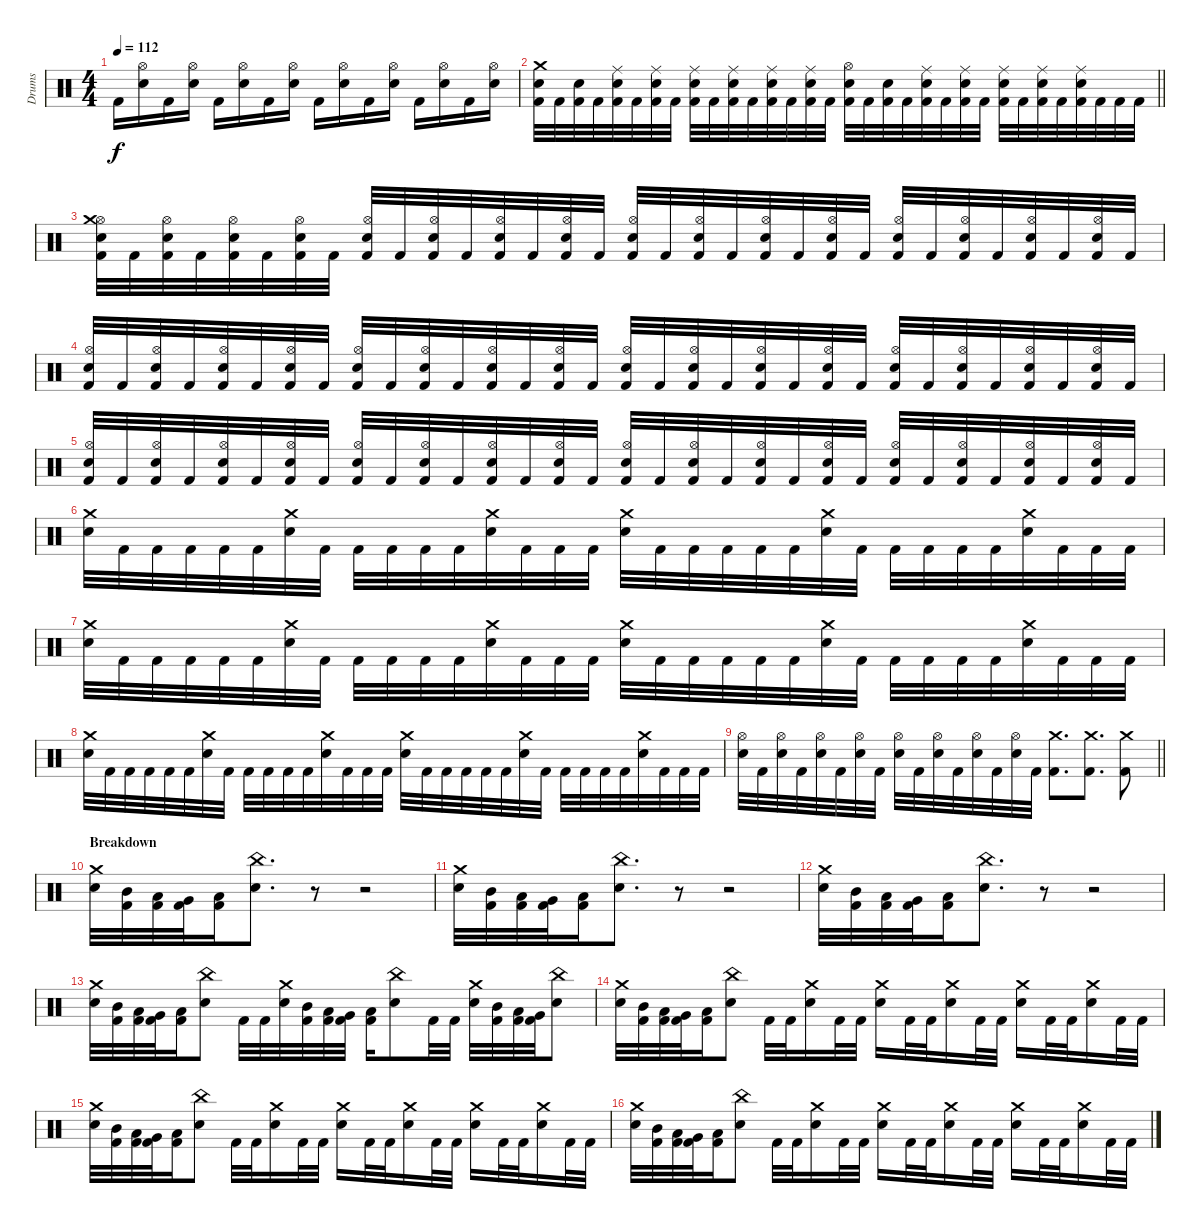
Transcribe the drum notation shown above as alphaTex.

\track ("Drums" "Drums") {instrument percussion}
\staff {score}
\articulation defaults
\ts (4 4)
\tempo 112
\clef neutral
\ks c "Kick (hit) 2".16{dy f}
("Hi-Hat (open)" "Snare (hit) 2").16 "Kick (hit) 2".16 ("Hi-Hat (open)" "Snare (hit) 2").16 "Kick (hit) 2".16 ("Hi-Hat (open)" "Snare (hit) 2").16 "Kick (hit) 2".16 ("Hi-Hat (open)" "Snare (hit) 2").16 "Kick (hit) 2".16 ("Hi-Hat (open)" "Snare (hit) 2").16 "Kick (hit) 2".16 ("Hi-Hat (open)" "Snare (hit) 2").16 "Kick (hit) 2".16 ("Hi-Hat (open)" "Snare (hit) 2").16 "Kick (hit) 2".16 ("Hi-Hat (open)" "Snare (hit) 2").16 |
\barLineRight lightlight
("Snare (hit) 2" "Kick (hit) 2" "Crash medium (hit)").32 "Kick (hit) 2".32 ("Snare (hit) 2" "Kick (hit) 2").32 "Kick (hit) 2".32 ("Ride (middle)" "Snare (hit) 2" "Kick (hit) 2").32 "Kick (hit) 2".32 ("Ride (middle)" "Snare (hit) 2" "Kick (hit) 2").32 "Kick (hit) 2".32 ("Ride (middle)" "Snare (hit) 2" "Kick (hit) 2").32 "Kick (hit) 2".32 ("Ride (middle)" "Snare (hit) 2" "Kick (hit) 2").32 "Kick (hit) 2".32 ("Ride (middle)" "Snare (hit) 2" "Kick (hit) 2").32 "Kick (hit) 2".32 ("Ride (middle)" "Snare (hit) 2" "Kick (hit) 2").32 "Kick (hit) 2".32 ("Hi-Hat (open)" "Snare (hit) 2" "Kick (hit) 2").32 "Kick (hit) 2".32 ("Snare (hit) 2" "Kick (hit) 2").32 "Kick (hit) 2".32 ("Ride (middle)" "Snare (hit) 2" "Kick (hit) 2").32 "Kick (hit) 2".32 ("Ride (middle)" "Snare (hit) 2" "Kick (hit) 2").32 "Kick (hit) 2".32 ("Ride (middle)" "Snare (hit) 2" "Kick (hit) 2").32 "Kick (hit) 2".32 ("Ride (middle)" "Snare (hit) 2" "Kick (hit) 2").32 "Kick (hit) 2".32 ("Ride (middle)" "Snare (hit) 2" "Kick (hit) 2").32 "Kick (hit) 2".32 "Kick (hit) 2".32 "Kick (hit) 2".32 |
("Hi-Hat (open)" "Snare (hit) 2" "Kick (hit) 2" "Crash medium (hit)").32 "Kick (hit) 2".32 ("Hi-Hat (open)" "Snare (hit) 2" "Kick (hit) 2").32 "Kick (hit) 2".32 ("Hi-Hat (open)" "Snare (hit) 2" "Kick (hit) 2").32 "Kick (hit) 2".32 ("Hi-Hat (open)" "Snare (hit) 2" "Kick (hit) 2").32 "Kick (hit) 2".32 ("Hi-Hat (open)" "Snare (hit) 2" "Kick (hit) 2").32 "Kick (hit) 2".32 ("Hi-Hat (open)" "Snare (hit) 2" "Kick (hit) 2").32 "Kick (hit) 2".32 ("Hi-Hat (open)" "Snare (hit) 2" "Kick (hit) 2").32 "Kick (hit) 2".32 ("Hi-Hat (open)" "Snare (hit) 2" "Kick (hit) 2").32 "Kick (hit) 2".32 ("Hi-Hat (open)" "Snare (hit) 2" "Kick (hit) 2").32 "Kick (hit) 2".32 ("Hi-Hat (open)" "Snare (hit) 2" "Kick (hit) 2").32 "Kick (hit) 2".32 ("Hi-Hat (open)" "Snare (hit) 2" "Kick (hit) 2").32 "Kick (hit) 2".32 ("Hi-Hat (open)" "Snare (hit) 2" "Kick (hit) 2").32 "Kick (hit) 2".32 ("Hi-Hat (open)" "Snare (hit) 2" "Kick (hit) 2").32 "Kick (hit) 2".32 ("Hi-Hat (open)" "Snare (hit) 2" "Kick (hit) 2").32 "Kick (hit) 2".32 ("Hi-Hat (open)" "Snare (hit) 2" "Kick (hit) 2").32 "Kick (hit) 2".32 ("Hi-Hat (open)" "Snare (hit) 2" "Kick (hit) 2").32 "Kick (hit) 2".32 |
("Hi-Hat (open)" "Snare (hit) 2" "Kick (hit) 2").32 "Kick (hit) 2".32 ("Hi-Hat (open)" "Snare (hit) 2" "Kick (hit) 2").32 "Kick (hit) 2".32 ("Hi-Hat (open)" "Snare (hit) 2" "Kick (hit) 2").32 "Kick (hit) 2".32 ("Hi-Hat (open)" "Snare (hit) 2" "Kick (hit) 2").32 "Kick (hit) 2".32 ("Hi-Hat (open)" "Snare (hit) 2" "Kick (hit) 2").32 "Kick (hit) 2".32 ("Hi-Hat (open)" "Snare (hit) 2" "Kick (hit) 2").32 "Kick (hit) 2".32 ("Hi-Hat (open)" "Snare (hit) 2" "Kick (hit) 2").32 "Kick (hit) 2".32 ("Hi-Hat (open)" "Snare (hit) 2" "Kick (hit) 2").32 "Kick (hit) 2".32 ("Hi-Hat (open)" "Snare (hit) 2" "Kick (hit) 2").32 "Kick (hit) 2".32 ("Hi-Hat (open)" "Snare (hit) 2" "Kick (hit) 2").32 "Kick (hit) 2".32 ("Hi-Hat (open)" "Snare (hit) 2" "Kick (hit) 2").32 "Kick (hit) 2".32 ("Hi-Hat (open)" "Snare (hit) 2" "Kick (hit) 2").32 "Kick (hit) 2".32 ("Hi-Hat (open)" "Snare (hit) 2" "Kick (hit) 2").32 "Kick (hit) 2".32 ("Hi-Hat (open)" "Snare (hit) 2" "Kick (hit) 2").32 "Kick (hit) 2".32 ("Hi-Hat (open)" "Snare (hit) 2" "Kick (hit) 2").32 "Kick (hit) 2".32 ("Hi-Hat (open)" "Snare (hit) 2" "Kick (hit) 2").32 "Kick (hit) 2".32 |
("Hi-Hat (open)" "Snare (hit) 2" "Kick (hit) 2").32 "Kick (hit) 2".32 ("Hi-Hat (open)" "Snare (hit) 2" "Kick (hit) 2").32 "Kick (hit) 2".32 ("Hi-Hat (open)" "Snare (hit) 2" "Kick (hit) 2").32 "Kick (hit) 2".32 ("Hi-Hat (open)" "Snare (hit) 2" "Kick (hit) 2").32 "Kick (hit) 2".32 ("Hi-Hat (open)" "Snare (hit) 2" "Kick (hit) 2").32 "Kick (hit) 2".32 ("Hi-Hat (open)" "Snare (hit) 2" "Kick (hit) 2").32 "Kick (hit) 2".32 ("Hi-Hat (open)" "Snare (hit) 2" "Kick (hit) 2").32 "Kick (hit) 2".32 ("Hi-Hat (open)" "Snare (hit) 2" "Kick (hit) 2").32 "Kick (hit) 2".32 ("Hi-Hat (open)" "Snare (hit) 2" "Kick (hit) 2").32 "Kick (hit) 2".32 ("Hi-Hat (open)" "Snare (hit) 2" "Kick (hit) 2").32 "Kick (hit) 2".32 ("Hi-Hat (open)" "Snare (hit) 2" "Kick (hit) 2").32 "Kick (hit) 2".32 ("Hi-Hat (open)" "Snare (hit) 2" "Kick (hit) 2").32 "Kick (hit) 2".32 ("Hi-Hat (open)" "Snare (hit) 2" "Kick (hit) 2").32 "Kick (hit) 2".32 ("Hi-Hat (open)" "Snare (hit) 2" "Kick (hit) 2").32 "Kick (hit) 2".32 ("Hi-Hat (open)" "Snare (hit) 2" "Kick (hit) 2").32 "Kick (hit) 2".32 ("Hi-Hat (open)" "Snare (hit) 2" "Kick (hit) 2").32 "Kick (hit) 2".32 |
("Snare (hit) 2" "Crash medium (hit)").32 "Kick (hit) 2".32 "Kick (hit) 2".32 "Kick (hit) 2".32 "Kick (hit) 2".32 "Kick (hit) 2".32 ("Snare (hit) 2" "Crash medium (hit)").32 "Kick (hit) 2".32 "Kick (hit) 2".32 "Kick (hit) 2".32 "Kick (hit) 2".32 "Kick (hit) 2".32 ("Snare (hit) 2" "Crash medium (hit)").32 "Kick (hit) 2".32 "Kick (hit) 2".32 "Kick (hit) 2".32 ("Snare (hit) 2" "Crash medium (hit)").32 "Kick (hit) 2".32 "Kick (hit) 2".32 "Kick (hit) 2".32 "Kick (hit) 2".32 "Kick (hit) 2".32 ("Snare (hit) 2" "Crash medium (hit)").32 "Kick (hit) 2".32 "Kick (hit) 2".32 "Kick (hit) 2".32 "Kick (hit) 2".32 "Kick (hit) 2".32 ("Snare (hit) 2" "Crash medium (hit)").32 "Kick (hit) 2".32 "Kick (hit) 2".32 "Kick (hit) 2".32 |
("Snare (hit) 2" "Crash medium (hit)").32 "Kick (hit) 2".32 "Kick (hit) 2".32 "Kick (hit) 2".32 "Kick (hit) 2".32 "Kick (hit) 2".32 ("Snare (hit) 2" "Crash medium (hit)").32 "Kick (hit) 2".32 "Kick (hit) 2".32 "Kick (hit) 2".32 "Kick (hit) 2".32 "Kick (hit) 2".32 ("Snare (hit) 2" "Crash medium (hit)").32 "Kick (hit) 2".32 "Kick (hit) 2".32 "Kick (hit) 2".32 ("Snare (hit) 2" "Crash medium (hit)").32 "Kick (hit) 2".32 "Kick (hit) 2".32 "Kick (hit) 2".32 "Kick (hit) 2".32 "Kick (hit) 2".32 ("Snare (hit) 2" "Crash medium (hit)").32 "Kick (hit) 2".32 "Kick (hit) 2".32 "Kick (hit) 2".32 "Kick (hit) 2".32 "Kick (hit) 2".32 ("Snare (hit) 2" "Crash medium (hit)").32 "Kick (hit) 2".32 "Kick (hit) 2".32 "Kick (hit) 2".32 |
("Snare (hit) 2" "Crash medium (hit)").32 "Kick (hit) 2".32 "Kick (hit) 2".32 "Kick (hit) 2".32 "Kick (hit) 2".32 "Kick (hit) 2".32 ("Snare (hit) 2" "Crash medium (hit)").32 "Kick (hit) 2".32 "Kick (hit) 2".32 "Kick (hit) 2".32 "Kick (hit) 2".32 "Kick (hit) 2".32 ("Snare (hit) 2" "Crash medium (hit)").32 "Kick (hit) 2".32 "Kick (hit) 2".32 "Kick (hit) 2".32 ("Snare (hit) 2" "Crash medium (hit)").32 "Kick (hit) 2".32 "Kick (hit) 2".32 "Kick (hit) 2".32 "Kick (hit) 2".32 "Kick (hit) 2".32 ("Snare (hit) 2" "Crash medium (hit)").32 "Kick (hit) 2".32 "Kick (hit) 2".32 "Kick (hit) 2".32 "Kick (hit) 2".32 "Kick (hit) 2".32 ("Snare (hit) 2" "Crash medium (hit)").32 "Kick (hit) 2".32 "Kick (hit) 2".32 "Kick (hit) 2".32 |
\barLineRight lightlight
("Hi-Hat (open)" "Snare (hit) 2").32 "Kick (hit) 2".32 ("Hi-Hat (open)" "Snare (hit) 2").32 "Kick (hit) 2".32 ("Hi-Hat (open)" "Snare (hit) 2").32 "Kick (hit) 2".32 ("Hi-Hat (open)" "Snare (hit) 2").32 "Kick (hit) 2".32 ("Hi-Hat (open)" "Snare (hit) 2").32 "Kick (hit) 2".32 ("Hi-Hat (open)" "Snare (hit) 2").32 "Kick (hit) 2".32 ("Hi-Hat (open)" "Snare (hit) 2").32 "Kick (hit) 2".32 ("Hi-Hat (open)" "Snare (hit) 2").32 "Kick (hit) 2".32 ("Kick (hit) 2" "Crash medium (hit)").8{d} ("Kick (hit) 2" "Crash medium (hit)").8{d} ("Kick (hit) 2" "Crash medium (hit)").8 |
\section ("" "Breakdown")
("Snare (hit) 2" "Crash medium (hit)").32 ("Mid Tom (hit)" "Kick (hit) 2").32 ("Low Tom (hit)" "Kick (hit) 2").32 ("Very Low Tom (hit)" "Kick (hit) 2").32 ("Low Floor Tom (hit)" "Kick (hit) 2").16 ("Snare (hit) 2" "China (hit)").8{d} r.8 r.2 |
("Snare (hit) 2" "Crash medium (hit)").32 ("Mid Tom (hit)" "Kick (hit) 2").32 ("Low Tom (hit)" "Kick (hit) 2").32 ("Very Low Tom (hit)" "Kick (hit) 2").32 ("Low Floor Tom (hit)" "Kick (hit) 2").16 ("Snare (hit) 2" "China (hit)").8{d} r.8 r.2 |
("Snare (hit) 2" "Crash medium (hit)").32 ("Mid Tom (hit)" "Kick (hit) 2").32 ("Low Tom (hit)" "Kick (hit) 2").32 ("Very Low Tom (hit)" "Kick (hit) 2").32 ("Low Floor Tom (hit)" "Kick (hit) 2").16 ("Snare (hit) 2" "China (hit)").8{d} r.8 r.2 |
("Snare (hit) 2" "Crash medium (hit)").32 ("Mid Tom (hit)" "Kick (hit) 2").32 ("Low Tom (hit)" "Kick (hit) 2").32 ("Very Low Tom (hit)" "Kick (hit) 2").32 ("Low Floor Tom (hit)" "Kick (hit) 2").16 ("Snare (hit) 2" "China (hit)").8 "Kick (hit) 2".32 "Kick (hit) 2".32 ("Snare (hit) 2" "Crash medium (hit)").32 ("Mid Tom (hit)" "Kick (hit) 2").32 ("Low Tom (hit)" "Kick (hit) 2").32 ("Very Low Tom (hit)" "Kick (hit) 2").32 ("Low Floor Tom (hit)" "Kick (hit) 2").16 ("Snare (hit) 2" "China (hit)").8 "Kick (hit) 2".32 "Kick (hit) 2".32 ("Snare (hit) 2" "Crash medium (hit)").32 ("Mid Tom (hit)" "Kick (hit) 2").32 ("Low Tom (hit)" "Kick (hit) 2").32 ("Very Low Tom (hit)" "Kick (hit) 2").32 ("Snare (hit) 2" "China (hit)").8 |
("Snare (hit) 2" "Crash medium (hit)").32 ("Mid Tom (hit)" "Kick (hit) 2").32 ("Low Tom (hit)" "Kick (hit) 2").32 ("Very Low Tom (hit)" "Kick (hit) 2").32 ("Low Floor Tom (hit)" "Kick (hit) 2").16 ("Snare (hit) 2" "China (hit)").8 "Kick (hit) 2".32 "Kick (hit) 2".32 ("Snare (hit) 2" "Crash medium (hit)").16 "Kick (hit) 2".32 "Kick (hit) 2".32 ("Snare (hit) 2" "Crash medium (hit)").16 "Kick (hit) 2".32 "Kick (hit) 2".32 ("Snare (hit) 2" "Crash medium (hit)").16 "Kick (hit) 2".32 "Kick (hit) 2".32 ("Snare (hit) 2" "Crash medium (hit)").16 "Kick (hit) 2".32 "Kick (hit) 2".32 ("Snare (hit) 2" "Crash medium (hit)").16 "Kick (hit) 2".32 "Kick (hit) 2".32 |
("Snare (hit) 2" "Crash medium (hit)").32 ("Mid Tom (hit)" "Kick (hit) 2").32 ("Low Tom (hit)" "Kick (hit) 2").32 ("Very Low Tom (hit)" "Kick (hit) 2").32 ("Low Floor Tom (hit)" "Kick (hit) 2").16 ("Snare (hit) 2" "China (hit)").8 "Kick (hit) 2".32 "Kick (hit) 2".32 ("Snare (hit) 2" "Crash medium (hit)").16 "Kick (hit) 2".32 "Kick (hit) 2".32 ("Snare (hit) 2" "Crash medium (hit)").16 "Kick (hit) 2".32 "Kick (hit) 2".32 ("Snare (hit) 2" "Crash medium (hit)").16 "Kick (hit) 2".32 "Kick (hit) 2".32 ("Snare (hit) 2" "Crash medium (hit)").16 "Kick (hit) 2".32 "Kick (hit) 2".32 ("Snare (hit) 2" "Crash medium (hit)").16 "Kick (hit) 2".32 "Kick (hit) 2".32 |
("Snare (hit) 2" "Crash medium (hit)").32 ("Mid Tom (hit)" "Kick (hit) 2").32 ("Low Tom (hit)" "Kick (hit) 2").32 ("Very Low Tom (hit)" "Kick (hit) 2").32 ("Low Floor Tom (hit)" "Kick (hit) 2").16 ("Snare (hit) 2" "China (hit)").8 "Kick (hit) 2".32 "Kick (hit) 2".32 ("Snare (hit) 2" "Crash medium (hit)").16 "Kick (hit) 2".32 "Kick (hit) 2".32 ("Snare (hit) 2" "Crash medium (hit)").16 "Kick (hit) 2".32 "Kick (hit) 2".32 ("Snare (hit) 2" "Crash medium (hit)").16 "Kick (hit) 2".32 "Kick (hit) 2".32 ("Snare (hit) 2" "Crash medium (hit)").16 "Kick (hit) 2".32 "Kick (hit) 2".32 ("Snare (hit) 2" "Crash medium (hit)").16 "Kick (hit) 2".32 "Kick (hit) 2".32
